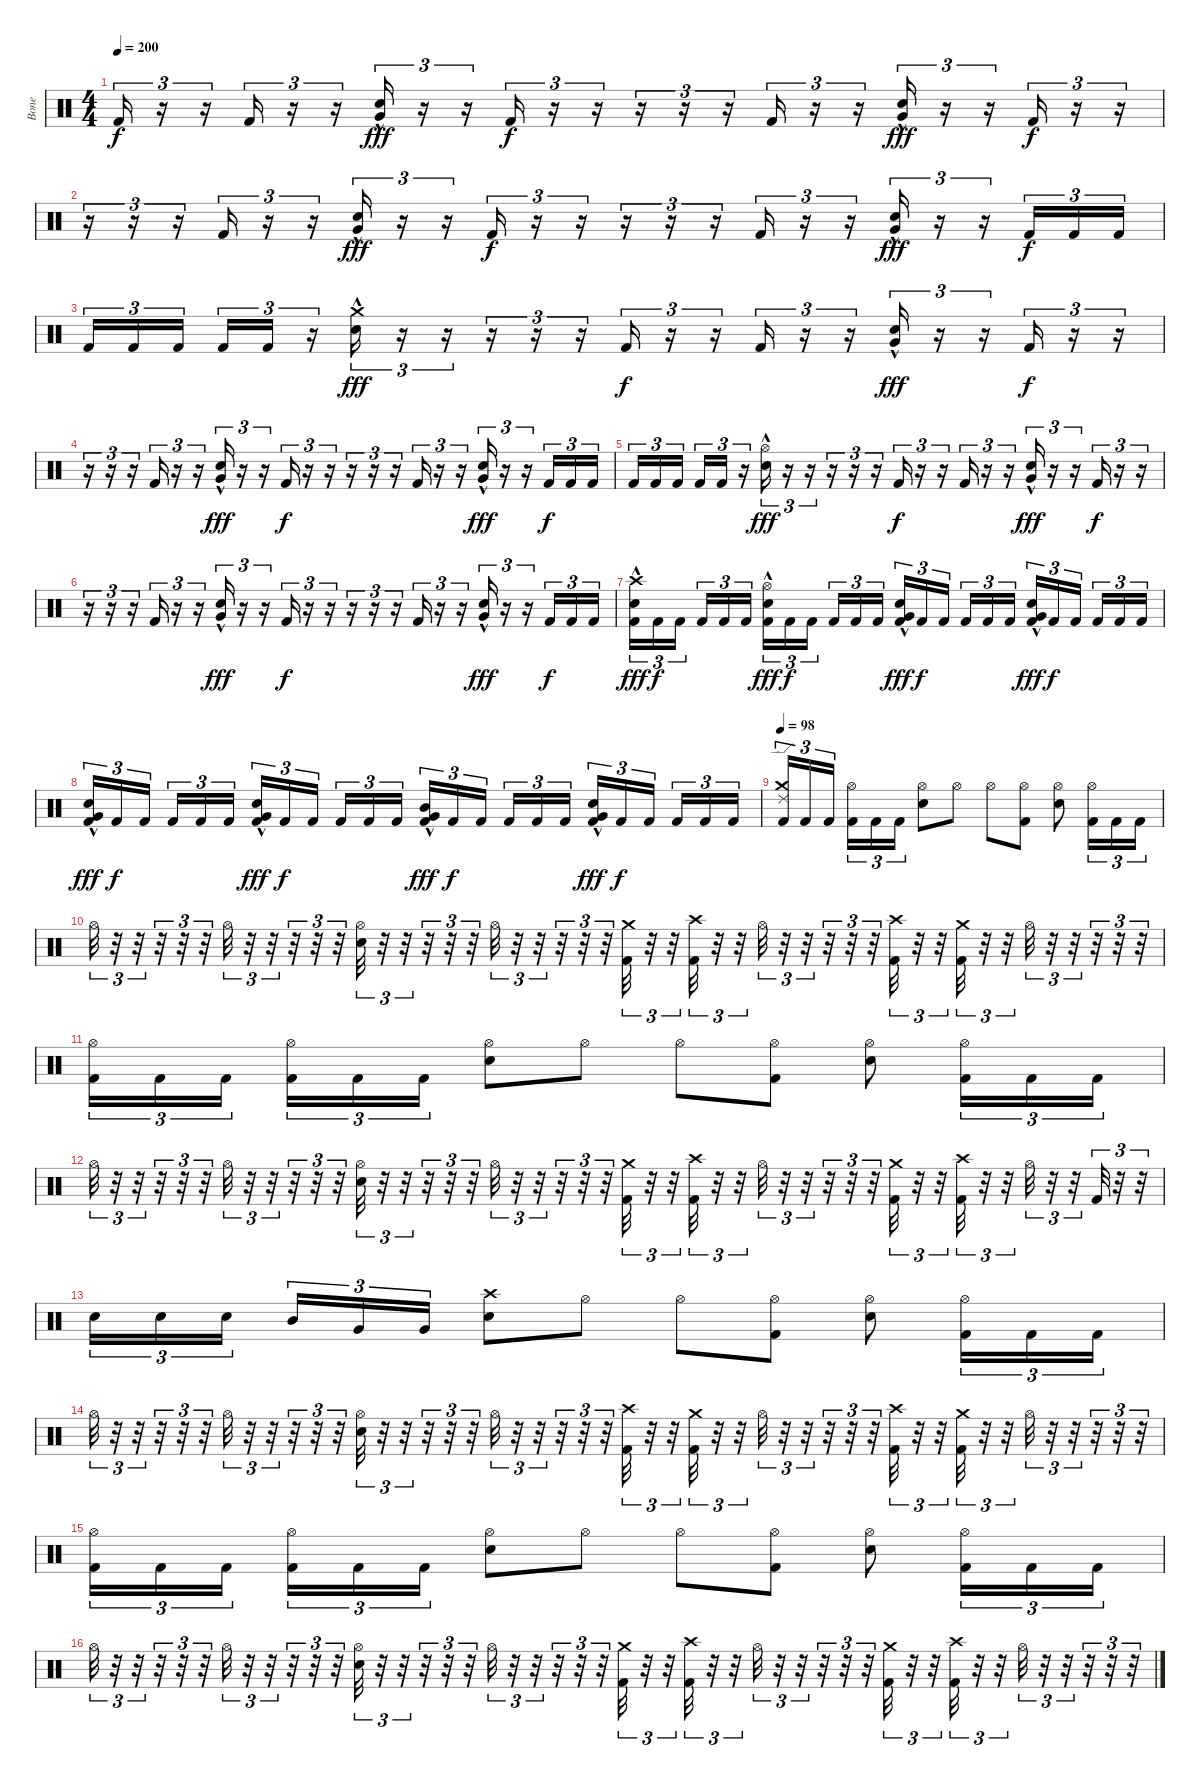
\track ("Bone " "Bone ") {instrument percussion}
\staff {score}
\articulation defaults
\ts (4 4)
\tempo 200
\clef neutral
\ks c "Kick (hit) 2".16{tu (3 2) dy f}
r.16{tu (3 2)} r.16{tu (3 2)} "Kick (hit) 2".16{tu (3 2)} r.16{tu (3 2)} r.16{tu (3 2)} ("Very Low Tom (hit)"{hac} "Electric Snare (hit)"{hac}).16{tu (3 2) dy fff} r.16{tu (3 2)} r.16{tu (3 2)} "Kick (hit) 2".16{tu (3 2) dy f} r.16{tu (3 2)} r.16{tu (3 2)} r.16{tu (3 2)} r.16{tu (3 2)} r.16{tu (3 2)} "Kick (hit) 2".16{tu (3 2)} r.16{tu (3 2)} r.16{tu (3 2)} ("Very Low Tom (hit)"{hac} "Electric Snare (hit)"{hac}).16{tu (3 2) dy fff} r.16{tu (3 2)} r.16{tu (3 2)} "Kick (hit) 2".16{tu (3 2) dy f} r.16{tu (3 2)} r.16{tu (3 2)} |
r.16{tu (3 2)} r.16{tu (3 2)} r.16{tu (3 2)} "Kick (hit) 2".16{tu (3 2)} r.16{tu (3 2)} r.16{tu (3 2)} ("Very Low Tom (hit)"{hac} "Electric Snare (hit)"{hac}).16{tu (3 2) dy fff} r.16{tu (3 2)} r.16{tu (3 2)} "Kick (hit) 2".16{tu (3 2) dy f} r.16{tu (3 2)} r.16{tu (3 2)} r.16{tu (3 2)} r.16{tu (3 2)} r.16{tu (3 2)} "Kick (hit) 2".16{tu (3 2)} r.16{tu (3 2)} r.16{tu (3 2)} ("Very Low Tom (hit)"{hac} "Electric Snare (hit)"{hac}).16{tu (3 2) dy fff} r.16{tu (3 2)} r.16{tu (3 2)} "Kick (hit) 2".16{tu (3 2) dy f} "Kick (hit) 2".16{tu (3 2)} "Kick (hit) 2".16{tu (3 2)} |
"Kick (hit) 2".16{tu (3 2)} "Kick (hit) 2".16{tu (3 2)} "Kick (hit) 2".16{tu (3 2) beam splitsecondary} "Kick (hit) 2".16{tu (3 2)} "Kick (hit) 2".16{tu (3 2)} r.16{tu (3 2)} ("Electric Snare (hit)"{hac} "Crash medium (hit)"{hac}).16{tu (3 2) dy fff} r.16{tu (3 2)} r.16{tu (3 2)} r.16{tu (3 2)} r.16{tu (3 2)} r.16{tu (3 2)} "Kick (hit) 2".16{tu (3 2) dy f} r.16{tu (3 2)} r.16{tu (3 2)} "Kick (hit) 2".16{tu (3 2)} r.16{tu (3 2)} r.16{tu (3 2)} ("Very Low Tom (hit)"{hac} "Electric Snare (hit)"{hac}).16{tu (3 2) dy fff} r.16{tu (3 2)} r.16{tu (3 2)} "Kick (hit) 2".16{tu (3 2) dy f} r.16{tu (3 2)} r.16{tu (3 2)} |
r.16{tu (3 2)} r.16{tu (3 2)} r.16{tu (3 2)} "Kick (hit) 2".16{tu (3 2)} r.16{tu (3 2)} r.16{tu (3 2)} ("Electric Snare (hit)"{hac} "Very Low Tom (hit)"{hac}).16{tu (3 2) dy fff} r.16{tu (3 2)} r.16{tu (3 2)} "Kick (hit) 2".16{tu (3 2) dy f} r.16{tu (3 2)} r.16{tu (3 2)} r.16{tu (3 2)} r.16{tu (3 2)} r.16{tu (3 2)} "Kick (hit) 2".16{tu (3 2)} r.16{tu (3 2)} r.16{tu (3 2)} ("Electric Snare (hit)"{hac} "Very Low Tom (hit)"{hac}).16{tu (3 2) dy fff} r.16{tu (3 2)} r.16{tu (3 2)} "Kick (hit) 2".16{tu (3 2) dy f} "Kick (hit) 2".16{tu (3 2)} "Kick (hit) 2".16{tu (3 2)} |
"Kick (hit) 2".16{tu (3 2)} "Kick (hit) 2".16{tu (3 2)} "Kick (hit) 2".16{tu (3 2) beam splitsecondary} "Kick (hit) 2".16{tu (3 2)} "Kick (hit) 2".16{tu (3 2)} r.16{tu (3 2)} ("Electric Snare (hit)"{hac} "Hi-Hat (open)"{hac}).16{tu (3 2) dy fff} r.16{tu (3 2)} r.16{tu (3 2)} r.16{tu (3 2)} r.16{tu (3 2)} r.16{tu (3 2)} "Kick (hit) 2".16{tu (3 2) dy f} r.16{tu (3 2)} r.16{tu (3 2)} "Kick (hit) 2".16{tu (3 2)} r.16{tu (3 2)} r.16{tu (3 2)} ("Very Low Tom (hit)"{hac} "Electric Snare (hit)"{hac}).16{tu (3 2) dy fff} r.16{tu (3 2)} r.16{tu (3 2)} "Kick (hit) 2".16{tu (3 2) dy f} r.16{tu (3 2)} r.16{tu (3 2)} |
r.16{tu (3 2)} r.16{tu (3 2)} r.16{tu (3 2)} "Kick (hit) 2".16{tu (3 2)} r.16{tu (3 2)} r.16{tu (3 2)} ("Electric Snare (hit)"{hac} "Very Low Tom (hit)"{hac}).16{tu (3 2) dy fff} r.16{tu (3 2)} r.16{tu (3 2)} "Kick (hit) 2".16{tu (3 2) dy f} r.16{tu (3 2)} r.16{tu (3 2)} r.16{tu (3 2)} r.16{tu (3 2)} r.16{tu (3 2)} "Kick (hit) 2".16{tu (3 2)} r.16{tu (3 2)} r.16{tu (3 2)} ("Electric Snare (hit)"{hac} "Very Low Tom (hit)"{hac}).16{tu (3 2) dy fff} r.16{tu (3 2)} r.16{tu (3 2)} "Kick (hit) 2".16{tu (3 2) dy f} "Kick (hit) 2".16{tu (3 2)} "Kick (hit) 2".16{tu (3 2)} |
("Crash high (hit)"{hac} "Electric Snare (hit)"{hac} "Kick (hit) 2"{hac}).16{tu (3 2) dy fff} "Kick (hit) 2".16{tu (3 2) dy f} "Kick (hit) 2".16{tu (3 2) beam splitsecondary} "Kick (hit) 2".16{tu (3 2)} "Kick (hit) 2".16{tu (3 2)} "Kick (hit) 2".16{tu (3 2)} ("Hi-Hat (open)"{hac} "Electric Snare (hit)"{hac} "Kick (hit) 2"{hac}).16{tu (3 2) dy fff} "Kick (hit) 2".16{tu (3 2) dy f} "Kick (hit) 2".16{tu (3 2) beam splitsecondary} "Kick (hit) 2".16{tu (3 2)} "Kick (hit) 2".16{tu (3 2)} "Kick (hit) 2".16{tu (3 2)} ("Very Low Tom (hit)"{hac} "Electric Snare (hit)"{hac} "Kick (hit) 2"{hac}).16{tu (3 2) dy fff} "Kick (hit) 2".16{tu (3 2) dy f} "Kick (hit) 2".16{tu (3 2) beam splitsecondary} "Kick (hit) 2".16{tu (3 2)} "Kick (hit) 2".16{tu (3 2)} "Kick (hit) 2".16{tu (3 2)} ("Very Low Tom (hit)"{hac} "Electric Snare (hit)"{hac} "Kick (hit) 2"{hac}).16{tu (3 2) dy fff} "Kick (hit) 2".16{tu (3 2) dy f} "Kick (hit) 2".16{tu (3 2) beam splitsecondary} "Kick (hit) 2".16{tu (3 2)} "Kick (hit) 2".16{tu (3 2)} "Kick (hit) 2".16{tu (3 2)} |
("Very Low Tom (hit)"{hac} "Electric Snare (hit)"{hac} "Kick (hit) 2"{hac}).16{tu (3 2) dy fff} "Kick (hit) 2".16{tu (3 2) dy f} "Kick (hit) 2".16{tu (3 2) beam splitsecondary} "Kick (hit) 2".16{tu (3 2)} "Kick (hit) 2".16{tu (3 2)} "Kick (hit) 2".16{tu (3 2)} ("Very Low Tom (hit)"{hac} "Electric Snare (hit)"{hac} "Kick (hit) 2"{hac}).16{tu (3 2) dy fff} "Kick (hit) 2".16{tu (3 2) dy f} "Kick (hit) 2".16{tu (3 2) beam splitsecondary} "Kick (hit) 2".16{tu (3 2)} "Kick (hit) 2".16{tu (3 2)} "Kick (hit) 2".16{tu (3 2)} ("Mid Tom (hit)"{hac} "Very Low Tom (hit)"{hac} "Kick (hit) 2"{hac}).16{tu (3 2) dy fff} "Kick (hit) 2".16{tu (3 2) dy f} "Kick (hit) 2".16{tu (3 2) beam splitsecondary} "Kick (hit) 2".16{tu (3 2)} "Kick (hit) 2".16{tu (3 2)} "Kick (hit) 2".16{tu (3 2)} ("Very Low Tom (hit)"{hac} "Electric Snare (hit)"{hac} "Kick (hit) 2"{hac}).16{tu (3 2) dy fff} "Kick (hit) 2".16{tu (3 2) dy f} "Kick (hit) 2".16{tu (3 2) beam splitsecondary} "Kick (hit) 2".16{tu (3 2)} "Kick (hit) 2".16{tu (3 2)} "Kick (hit) 2".16{tu (3 2)} |
\tempo 98
("Ride (edge) 2" "Crash medium (hit)" "Kick (hit) 2").16{tu (3 2)} "Kick (hit) 2".16{tu (3 2)} "Kick (hit) 2".16{tu (3 2) beam splitsecondary} ("Hi-Hat (open)" "Kick (hit) 2").16{tu (3 2)} "Kick (hit) 2".16{tu (3 2)} "Kick (hit) 2".16{tu (3 2)} ("Hi-Hat (open)" "Electric Snare (hit)").8 "Hi-Hat (open)".8 "Hi-Hat (open)".8 ("Hi-Hat (open)" "Kick (hit) 2").8 ("Hi-Hat (open)" "Electric Snare (hit)").8 ("Hi-Hat (open)" "Kick (hit) 2").16{tu (3 2)} "Kick (hit) 2".16{tu (3 2)} "Kick (hit) 2".16{tu (3 2)} |
"Hi-Hat (open)".32{tu (3 2)} r.32{tu (3 2)} r.32{tu (3 2)} r.32{tu (3 2)} r.32{tu (3 2)} r.32{tu (3 2)} "Hi-Hat (open)".32{tu (3 2)} r.32{tu (3 2)} r.32{tu (3 2)} r.32{tu (3 2)} r.32{tu (3 2)} r.32{tu (3 2)} ("Hi-Hat (open)" "Electric Snare (hit)").32{tu (3 2)} r.32{tu (3 2)} r.32{tu (3 2)} r.32{tu (3 2)} r.32{tu (3 2)} r.32{tu (3 2)} "Hi-Hat (open)".32{tu (3 2)} r.32{tu (3 2)} r.32{tu (3 2)} r.32{tu (3 2)} r.32{tu (3 2)} r.32{tu (3 2)} ("Crash medium (hit)" "Kick (hit) 2").32{tu (3 2)} r.32{tu (3 2)} r.32{tu (3 2)} ("Crash high (hit)" "Kick (hit) 2").32{tu (3 2)} r.32{tu (3 2)} r.32{tu (3 2)} "Hi-Hat (open)".32{tu (3 2)} r.32{tu (3 2)} r.32{tu (3 2)} r.32{tu (3 2)} r.32{tu (3 2)} r.32{tu (3 2)} ("Crash high (hit)" "Kick (hit) 2").32{tu (3 2)} r.32{tu (3 2)} r.32{tu (3 2)} ("Crash medium (hit)" "Kick (hit) 2").32{tu (3 2)} r.32{tu (3 2)} r.32{tu (3 2)} "Hi-Hat (open)".32{tu (3 2)} r.32{tu (3 2)} r.32{tu (3 2)} r.32{tu (3 2)} r.32{tu (3 2)} r.32{tu (3 2)} |
("Hi-Hat (open)" "Kick (hit) 2").16{tu (3 2)} "Kick (hit) 2".16{tu (3 2)} "Kick (hit) 2".16{tu (3 2) beam splitsecondary} ("Hi-Hat (open)" "Kick (hit) 2").16{tu (3 2)} "Kick (hit) 2".16{tu (3 2)} "Kick (hit) 2".16{tu (3 2)} ("Hi-Hat (open)" "Electric Snare (hit)").8 "Hi-Hat (open)".8 "Hi-Hat (open)".8 ("Hi-Hat (open)" "Kick (hit) 2").8 ("Hi-Hat (open)" "Electric Snare (hit)").8 ("Hi-Hat (open)" "Kick (hit) 2").16{tu (3 2)} "Kick (hit) 2".16{tu (3 2)} "Kick (hit) 2".16{tu (3 2)} |
"Hi-Hat (open)".32{tu (3 2)} r.32{tu (3 2)} r.32{tu (3 2)} r.32{tu (3 2)} r.32{tu (3 2)} r.32{tu (3 2)} "Hi-Hat (open)".32{tu (3 2)} r.32{tu (3 2)} r.32{tu (3 2)} r.32{tu (3 2)} r.32{tu (3 2)} r.32{tu (3 2)} ("Hi-Hat (open)" "Electric Snare (hit)").32{tu (3 2)} r.32{tu (3 2)} r.32{tu (3 2)} r.32{tu (3 2)} r.32{tu (3 2)} r.32{tu (3 2)} "Hi-Hat (open)".32{tu (3 2)} r.32{tu (3 2)} r.32{tu (3 2)} r.32{tu (3 2)} r.32{tu (3 2)} r.32{tu (3 2)} ("Crash medium (hit)" "Kick (hit) 2").32{tu (3 2)} r.32{tu (3 2)} r.32{tu (3 2)} ("Crash high (hit)" "Kick (hit) 2").32{tu (3 2)} r.32{tu (3 2)} r.32{tu (3 2)} "Hi-Hat (open)".32{tu (3 2)} r.32{tu (3 2)} r.32{tu (3 2)} r.32{tu (3 2)} r.32{tu (3 2)} r.32{tu (3 2)} ("Crash medium (hit)" "Kick (hit) 2").32{tu (3 2)} r.32{tu (3 2)} r.32{tu (3 2)} ("Crash high (hit)" "Kick (hit) 2").32{tu (3 2)} r.32{tu (3 2)} r.32{tu (3 2)} "Hi-Hat (open)".32{tu (3 2)} r.32{tu (3 2)} r.32{tu (3 2)} "Kick (hit) 2".32{tu (3 2)} r.32{tu (3 2)} r.32{tu (3 2)} |
"Electric Snare (hit)".16{tu (3 2)} "Electric Snare (hit)".16{tu (3 2)} "Electric Snare (hit)".16{tu (3 2) beam splitsecondary} "Mid Tom (hit)".16{tu (3 2)} "Very Low Tom (hit)".16{tu (3 2)} "Very Low Tom (hit)".16{tu (3 2)} ("Crash high (hit)" "Electric Snare (hit)").8 "Hi-Hat (open)".8 "Hi-Hat (open)".8 ("Hi-Hat (open)" "Kick (hit) 2").8 ("Hi-Hat (open)" "Electric Snare (hit)").8 ("Hi-Hat (open)" "Kick (hit) 2").16{tu (3 2)} "Kick (hit) 2".16{tu (3 2)} "Kick (hit) 2".16{tu (3 2)} |
"Hi-Hat (open)".32{tu (3 2)} r.32{tu (3 2)} r.32{tu (3 2)} r.32{tu (3 2)} r.32{tu (3 2)} r.32{tu (3 2)} "Hi-Hat (open)".32{tu (3 2)} r.32{tu (3 2)} r.32{tu (3 2)} r.32{tu (3 2)} r.32{tu (3 2)} r.32{tu (3 2)} ("Hi-Hat (open)" "Electric Snare (hit)").32{tu (3 2)} r.32{tu (3 2)} r.32{tu (3 2)} r.32{tu (3 2)} r.32{tu (3 2)} r.32{tu (3 2)} "Hi-Hat (open)".32{tu (3 2)} r.32{tu (3 2)} r.32{tu (3 2)} r.32{tu (3 2)} r.32{tu (3 2)} r.32{tu (3 2)} ("Crash high (hit)" "Kick (hit) 2").32{tu (3 2)} r.32{tu (3 2)} r.32{tu (3 2)} ("Crash medium (hit)" "Kick (hit) 2").32{tu (3 2)} r.32{tu (3 2)} r.32{tu (3 2)} "Hi-Hat (open)".32{tu (3 2)} r.32{tu (3 2)} r.32{tu (3 2)} r.32{tu (3 2)} r.32{tu (3 2)} r.32{tu (3 2)} ("Crash high (hit)" "Kick (hit) 2").32{tu (3 2)} r.32{tu (3 2)} r.32{tu (3 2)} ("Crash medium (hit)" "Kick (hit) 2").32{tu (3 2)} r.32{tu (3 2)} r.32{tu (3 2)} "Hi-Hat (open)".32{tu (3 2)} r.32{tu (3 2)} r.32{tu (3 2)} r.32{tu (3 2)} r.32{tu (3 2)} r.32{tu (3 2)} |
("Hi-Hat (open)" "Kick (hit) 2").16{tu (3 2)} "Kick (hit) 2".16{tu (3 2)} "Kick (hit) 2".16{tu (3 2) beam splitsecondary} ("Hi-Hat (open)" "Kick (hit) 2").16{tu (3 2)} "Kick (hit) 2".16{tu (3 2)} "Kick (hit) 2".16{tu (3 2)} ("Hi-Hat (open)" "Electric Snare (hit)").8 "Hi-Hat (open)".8 "Hi-Hat (open)".8 ("Hi-Hat (open)" "Kick (hit) 2").8 ("Hi-Hat (open)" "Electric Snare (hit)").8 ("Hi-Hat (open)" "Kick (hit) 2").16{tu (3 2)} "Kick (hit) 2".16{tu (3 2)} "Kick (hit) 2".16{tu (3 2)} |
"Hi-Hat (open)".32{tu (3 2)} r.32{tu (3 2)} r.32{tu (3 2)} r.32{tu (3 2)} r.32{tu (3 2)} r.32{tu (3 2)} "Hi-Hat (open)".32{tu (3 2)} r.32{tu (3 2)} r.32{tu (3 2)} r.32{tu (3 2)} r.32{tu (3 2)} r.32{tu (3 2)} ("Hi-Hat (open)" "Electric Snare (hit)").32{tu (3 2)} r.32{tu (3 2)} r.32{tu (3 2)} r.32{tu (3 2)} r.32{tu (3 2)} r.32{tu (3 2)} "Hi-Hat (open)".32{tu (3 2)} r.32{tu (3 2)} r.32{tu (3 2)} r.32{tu (3 2)} r.32{tu (3 2)} r.32{tu (3 2)} ("Crash medium (hit)" "Kick (hit) 2").32{tu (3 2)} r.32{tu (3 2)} r.32{tu (3 2)} ("Crash high (hit)" "Kick (hit) 2").32{tu (3 2)} r.32{tu (3 2)} r.32{tu (3 2)} "Hi-Hat (open)".32{tu (3 2)} r.32{tu (3 2)} r.32{tu (3 2)} r.32{tu (3 2)} r.32{tu (3 2)} r.32{tu (3 2)} ("Crash medium (hit)" "Kick (hit) 2").32{tu (3 2)} r.32{tu (3 2)} r.32{tu (3 2)} ("Crash high (hit)" "Kick (hit) 2").32{tu (3 2)} r.32{tu (3 2)} r.32{tu (3 2)} "Hi-Hat (open)".32{tu (3 2)} r.32{tu (3 2)} r.32{tu (3 2)} r.32{tu (3 2)} r.32{tu (3 2)} r.32{tu (3 2)}
